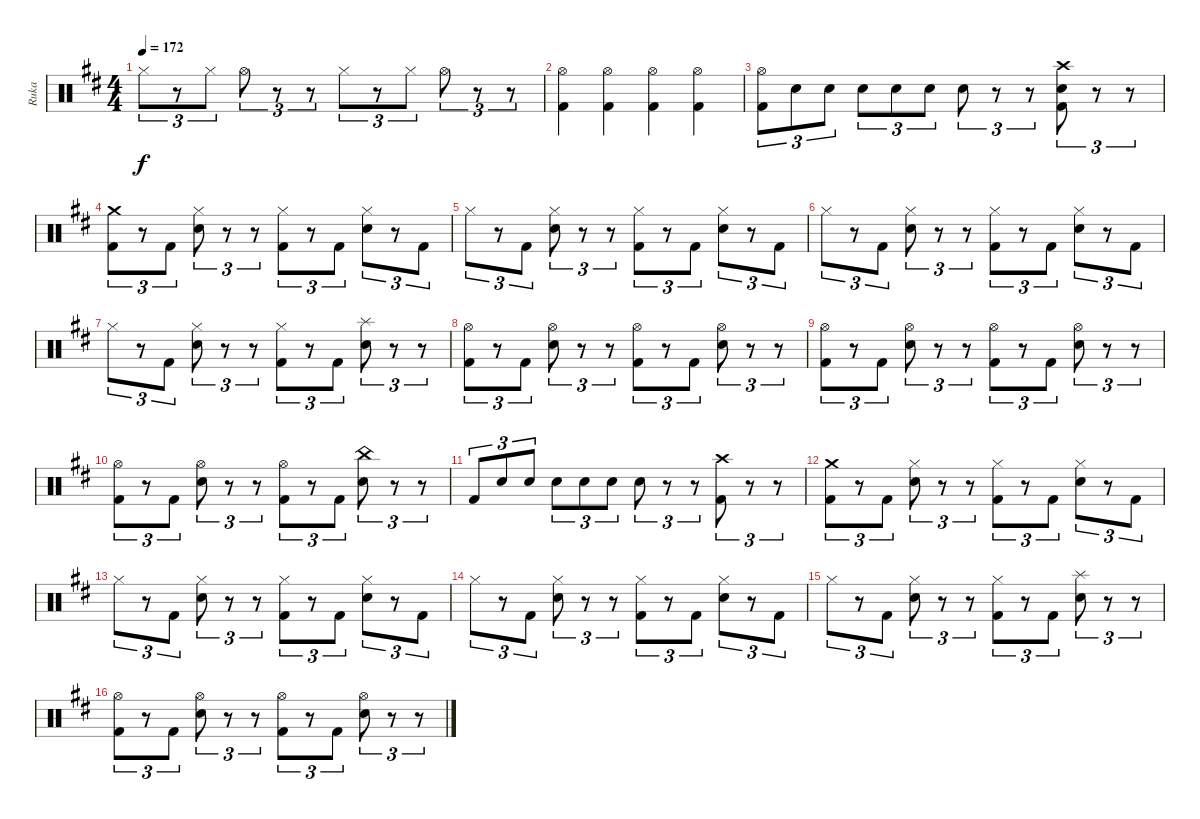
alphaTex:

\track ("Ruka" "Ruka") {instrument percussion}
\staff {score}
\articulation defaults
\ts (4 4)
\tempo 172
\clef neutral
\ks bminor "Hi-Hat (closed)".8{tu (3 2) dy f}
r.8{tu (3 2)} "Hi-Hat (closed)".8{tu (3 2)} "Hi-Hat (open)".8{tu (3 2)} r.8{tu (3 2)} r.8{tu (3 2)} "Hi-Hat (closed)".8{tu (3 2)} r.8{tu (3 2)} "Hi-Hat (closed)".8{tu (3 2)} "Hi-Hat (open)".8{tu (3 2)} r.8{tu (3 2)} r.8{tu (3 2)} |
("Kick (hit) 2" "Hi-Hat (open)").4 ("Kick (hit) 2" "Hi-Hat (open)").4 ("Kick (hit) 2" "Hi-Hat (open)").4 ("Kick (hit) 2" "Hi-Hat (open)").4 |
("Kick (hit) 2" "Hi-Hat (open)").8{tu (3 2)} "Electric Snare (hit)".8{tu (3 2)} "Electric Snare (hit)".8{tu (3 2)} "Electric Snare (hit)".8{tu (3 2)} "Electric Snare (hit)".8{tu (3 2)} "Electric Snare (hit)".8{tu (3 2)} "Electric Snare (hit)".8{tu (3 2)} r.8{tu (3 2)} r.8{tu (3 2)} ("Kick (hit) 2" "Electric Snare (hit)" "Crash high (hit)").8{tu (3 2)} r.8{tu (3 2)} r.8{tu (3 2)} |
("Kick (hit) 2" "Crash medium (hit)").8{tu (3 2)} r.8{tu (3 2)} "Kick (hit) 2".8{tu (3 2)} ("Electric Snare (hit)" "Hi-Hat (closed)").8{tu (3 2)} r.8{tu (3 2)} r.8{tu (3 2)} ("Kick (hit) 2" "Hi-Hat (closed)").8{tu (3 2)} r.8{tu (3 2)} "Kick (hit) 2".8{tu (3 2)} ("Electric Snare (hit)" "Hi-Hat (closed)").8{tu (3 2)} r.8{tu (3 2)} "Kick (hit) 2".8{tu (3 2)} |
"Hi-Hat (closed)".8{tu (3 2)} r.8{tu (3 2)} "Kick (hit) 2".8{tu (3 2)} ("Electric Snare (hit)" "Hi-Hat (closed)").8{tu (3 2)} r.8{tu (3 2)} r.8{tu (3 2)} ("Kick (hit) 2" "Hi-Hat (closed)").8{tu (3 2)} r.8{tu (3 2)} "Kick (hit) 2".8{tu (3 2)} ("Electric Snare (hit)" "Hi-Hat (closed)").8{tu (3 2)} r.8{tu (3 2)} "Kick (hit) 2".8{tu (3 2)} |
"Hi-Hat (closed)".8{tu (3 2)} r.8{tu (3 2)} "Kick (hit) 2".8{tu (3 2)} ("Electric Snare (hit)" "Hi-Hat (closed)").8{tu (3 2)} r.8{tu (3 2)} r.8{tu (3 2)} ("Kick (hit) 2" "Hi-Hat (closed)").8{tu (3 2)} r.8{tu (3 2)} "Kick (hit) 2".8{tu (3 2)} ("Electric Snare (hit)" "Hi-Hat (closed)").8{tu (3 2)} r.8{tu (3 2)} "Kick (hit) 2".8{tu (3 2)} |
"Hi-Hat (closed)".8{tu (3 2)} r.8{tu (3 2)} "Kick (hit) 2".8{tu (3 2)} ("Electric Snare (hit)" "Hi-Hat (closed)").8{tu (3 2)} r.8{tu (3 2)} r.8{tu (3 2)} ("Kick (hit) 2" "Hi-Hat (closed)").8{tu (3 2)} r.8{tu (3 2)} "Kick (hit) 2".8{tu (3 2)} ("Electric Snare (hit)" "Splash (hit)").8{tu (3 2)} r.8{tu (3 2)} r.8{tu (3 2)} |
("Kick (hit) 2" "Hi-Hat (open)").8{tu (3 2)} r.8{tu (3 2)} "Kick (hit) 2".8{tu (3 2)} ("Electric Snare (hit)" "Hi-Hat (open)").8{tu (3 2)} r.8{tu (3 2)} r.8{tu (3 2)} ("Kick (hit) 2" "Hi-Hat (open)").8{tu (3 2)} r.8{tu (3 2)} "Kick (hit) 2".8{tu (3 2)} ("Electric Snare (hit)" "Hi-Hat (open)").8{tu (3 2)} r.8{tu (3 2)} r.8{tu (3 2)} |
("Kick (hit) 2" "Hi-Hat (open)").8{tu (3 2)} r.8{tu (3 2)} "Kick (hit) 2".8{tu (3 2)} ("Electric Snare (hit)" "Hi-Hat (open)").8{tu (3 2)} r.8{tu (3 2)} r.8{tu (3 2)} ("Kick (hit) 2" "Hi-Hat (open)").8{tu (3 2)} r.8{tu (3 2)} "Kick (hit) 2".8{tu (3 2)} ("Electric Snare (hit)" "Hi-Hat (open)").8{tu (3 2)} r.8{tu (3 2)} r.8{tu (3 2)} |
("Kick (hit) 2" "Hi-Hat (open)").8{tu (3 2)} r.8{tu (3 2)} "Kick (hit) 2".8{tu (3 2)} ("Electric Snare (hit)" "Hi-Hat (open)").8{tu (3 2)} r.8{tu (3 2)} r.8{tu (3 2)} ("Kick (hit) 2" "Hi-Hat (open)").8{tu (3 2)} r.8{tu (3 2)} "Kick (hit) 2".8{tu (3 2)} ("Electric Snare (hit)" "China (hit)").8{tu (3 2)} r.8{tu (3 2)} r.8{tu (3 2)} |
"Kick (hit) 2".8{tu (3 2)} "Electric Snare (hit)".8{tu (3 2)} "Electric Snare (hit)".8{tu (3 2)} "Electric Snare (hit)".8{tu (3 2)} "Electric Snare (hit)".8{tu (3 2)} "Electric Snare (hit)".8{tu (3 2)} "Electric Snare (hit)".8{tu (3 2)} r.8{tu (3 2)} r.8{tu (3 2)} ("Kick (hit) 2" "Crash high (hit)").8{tu (3 2)} r.8{tu (3 2)} r.8{tu (3 2)} |
("Kick (hit) 2" "Crash medium (hit)").8{tu (3 2)} r.8{tu (3 2)} "Kick (hit) 2".8{tu (3 2)} ("Electric Snare (hit)" "Hi-Hat (closed)").8{tu (3 2)} r.8{tu (3 2)} r.8{tu (3 2)} ("Kick (hit) 2" "Hi-Hat (closed)").8{tu (3 2)} r.8{tu (3 2)} "Kick (hit) 2".8{tu (3 2)} ("Electric Snare (hit)" "Hi-Hat (closed)").8{tu (3 2)} r.8{tu (3 2)} "Kick (hit) 2".8{tu (3 2)} |
"Hi-Hat (closed)".8{tu (3 2)} r.8{tu (3 2)} "Kick (hit) 2".8{tu (3 2)} ("Electric Snare (hit)" "Hi-Hat (closed)").8{tu (3 2)} r.8{tu (3 2)} r.8{tu (3 2)} ("Kick (hit) 2" "Hi-Hat (closed)").8{tu (3 2)} r.8{tu (3 2)} "Kick (hit) 2".8{tu (3 2)} ("Electric Snare (hit)" "Hi-Hat (closed)").8{tu (3 2)} r.8{tu (3 2)} "Kick (hit) 2".8{tu (3 2)} |
"Hi-Hat (closed)".8{tu (3 2)} r.8{tu (3 2)} "Kick (hit) 2".8{tu (3 2)} ("Electric Snare (hit)" "Hi-Hat (closed)").8{tu (3 2)} r.8{tu (3 2)} r.8{tu (3 2)} ("Kick (hit) 2" "Hi-Hat (closed)").8{tu (3 2)} r.8{tu (3 2)} "Kick (hit) 2".8{tu (3 2)} ("Electric Snare (hit)" "Hi-Hat (closed)").8{tu (3 2)} r.8{tu (3 2)} "Kick (hit) 2".8{tu (3 2)} |
"Hi-Hat (closed)".8{tu (3 2)} r.8{tu (3 2)} "Kick (hit) 2".8{tu (3 2)} ("Electric Snare (hit)" "Hi-Hat (closed)").8{tu (3 2)} r.8{tu (3 2)} r.8{tu (3 2)} ("Kick (hit) 2" "Hi-Hat (closed)").8{tu (3 2)} r.8{tu (3 2)} "Kick (hit) 2".8{tu (3 2)} ("Electric Snare (hit)" "Splash (hit)").8{tu (3 2)} r.8{tu (3 2)} r.8{tu (3 2)} |
("Kick (hit) 2" "Hi-Hat (open)").8{tu (3 2)} r.8{tu (3 2)} "Kick (hit) 2".8{tu (3 2)} ("Electric Snare (hit)" "Hi-Hat (open)").8{tu (3 2)} r.8{tu (3 2)} r.8{tu (3 2)} ("Kick (hit) 2" "Hi-Hat (open)").8{tu (3 2)} r.8{tu (3 2)} "Kick (hit) 2".8{tu (3 2)} ("Electric Snare (hit)" "Hi-Hat (open)").8{tu (3 2)} r.8{tu (3 2)} r.8{tu (3 2)}
